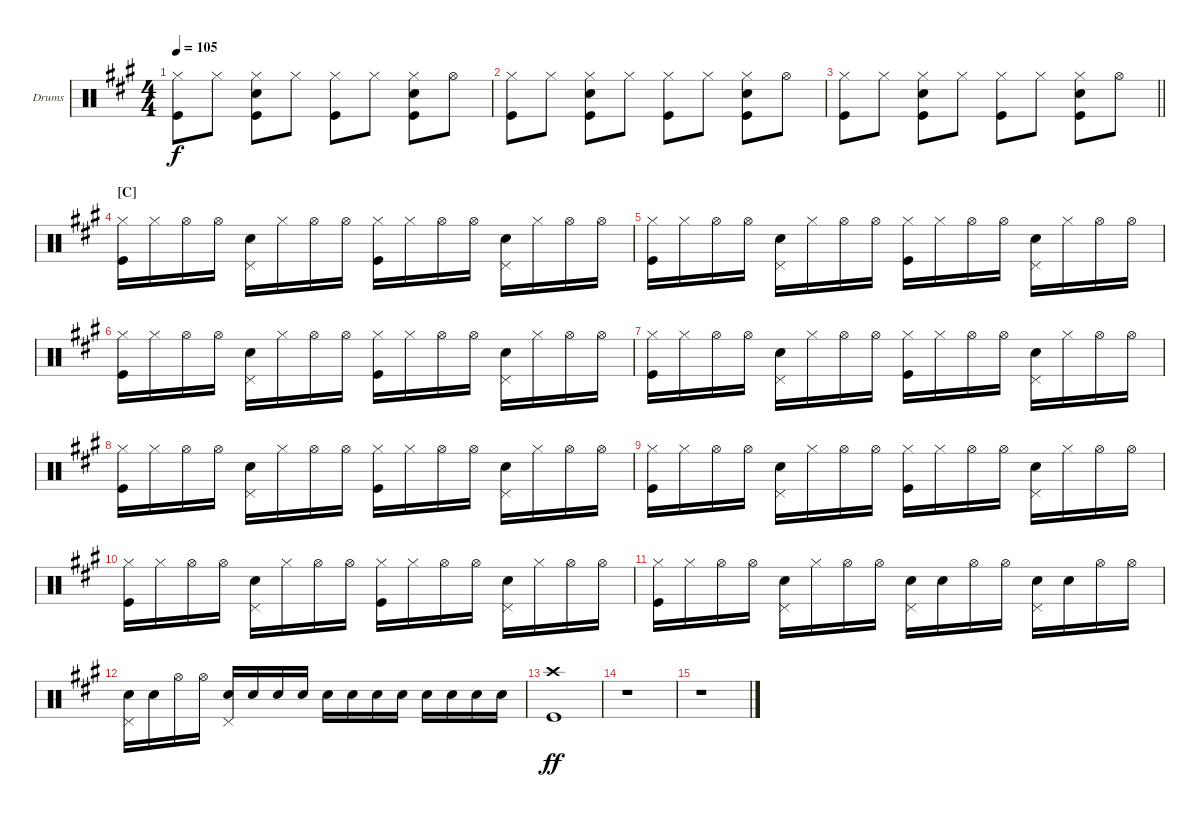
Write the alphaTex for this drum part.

\bracketExtendMode groupsimilarinstruments
\firstSystemTrackNameOrientation horizontal
\otherSystemsTrackNameOrientation horizontal
\track ("Fabrizio Moretti" "Drums") {instrument percussion}
\staff {score}
\articulation defaults
\ts (4 4)
\tempo 105
\clef neutral
\ks a
("Hi-Hat (closed)" "Kick (hit)").8{dy f} "Hi-Hat (closed)".8 ("Hi-Hat (closed)" "Snare (hit) 2" "Kick (hit)").8 "Hi-Hat (closed)".8 ("Hi-Hat (closed)" "Kick (hit)").8 "Hi-Hat (closed)".8 ("Hi-Hat (closed)" "Snare (hit) 2" "Kick (hit)").8 "Hi-Hat (open)".8 |
("Hi-Hat (closed)" "Kick (hit)").8 "Hi-Hat (closed)".8 ("Hi-Hat (closed)" "Snare (hit) 2" "Kick (hit)").8 "Hi-Hat (closed)".8 ("Hi-Hat (closed)" "Kick (hit)").8 "Hi-Hat (closed)".8 ("Hi-Hat (closed)" "Snare (hit) 2" "Kick (hit)").8 "Hi-Hat (open)".8 |
\barLineRight lightlight
("Hi-Hat (closed)" "Kick (hit)").8 "Hi-Hat (closed)".8 ("Hi-Hat (closed)" "Snare (hit) 2" "Kick (hit)").8 "Hi-Hat (closed)".8 ("Hi-Hat (closed)" "Kick (hit)").8 "Hi-Hat (closed)".8 ("Hi-Hat (closed)" "Snare (hit) 2" "Kick (hit)").8 "Hi-Hat (open)".8 |
\section ("C" "")
("Hi-Hat (closed)" "Kick (hit)").16 "Hi-Hat (closed)".16 "Hi-Hat (open)".16 "Hi-Hat (open)".16 ("Pedal Hi-Hat (hit)" "Snare (hit) 2").16 "Hi-Hat (closed)".16 "Hi-Hat (open)".16 "Hi-Hat (open)".16 ("Hi-Hat (closed)" "Kick (hit)").16 "Hi-Hat (closed)".16 "Hi-Hat (open)".16 "Hi-Hat (open)".16 ("Pedal Hi-Hat (hit)" "Snare (hit) 2").16 "Hi-Hat (closed)".16 "Hi-Hat (open)".16 "Hi-Hat (open)".16 |
("Hi-Hat (closed)" "Kick (hit)").16 "Hi-Hat (closed)".16 "Hi-Hat (open)".16 "Hi-Hat (open)".16 ("Pedal Hi-Hat (hit)" "Snare (hit) 2").16 "Hi-Hat (closed)".16 "Hi-Hat (open)".16 "Hi-Hat (open)".16 ("Hi-Hat (closed)" "Kick (hit)").16 "Hi-Hat (closed)".16 "Hi-Hat (open)".16 "Hi-Hat (open)".16 ("Pedal Hi-Hat (hit)" "Snare (hit) 2").16 "Hi-Hat (closed)".16 "Hi-Hat (open)".16 "Hi-Hat (open)".16 |
("Hi-Hat (closed)" "Kick (hit)").16 "Hi-Hat (closed)".16 "Hi-Hat (open)".16 "Hi-Hat (open)".16 ("Pedal Hi-Hat (hit)" "Snare (hit) 2").16 "Hi-Hat (closed)".16 "Hi-Hat (open)".16 "Hi-Hat (open)".16 ("Hi-Hat (closed)" "Kick (hit)").16 "Hi-Hat (closed)".16 "Hi-Hat (open)".16 "Hi-Hat (open)".16 ("Pedal Hi-Hat (hit)" "Snare (hit) 2").16 "Hi-Hat (closed)".16 "Hi-Hat (open)".16 "Hi-Hat (open)".16 |
("Hi-Hat (closed)" "Kick (hit)").16 "Hi-Hat (closed)".16 "Hi-Hat (open)".16 "Hi-Hat (open)".16 ("Pedal Hi-Hat (hit)" "Snare (hit) 2").16 "Hi-Hat (closed)".16 "Hi-Hat (open)".16 "Hi-Hat (open)".16 ("Hi-Hat (closed)" "Kick (hit)").16 "Hi-Hat (closed)".16 "Hi-Hat (open)".16 "Hi-Hat (open)".16 ("Pedal Hi-Hat (hit)" "Snare (hit) 2").16 "Hi-Hat (closed)".16 "Hi-Hat (open)".16 "Hi-Hat (open)".16 |
("Hi-Hat (closed)" "Kick (hit)").16 "Hi-Hat (closed)".16 "Hi-Hat (open)".16 "Hi-Hat (open)".16 ("Pedal Hi-Hat (hit)" "Snare (hit) 2").16 "Hi-Hat (closed)".16 "Hi-Hat (open)".16 "Hi-Hat (open)".16 ("Hi-Hat (closed)" "Kick (hit)").16 "Hi-Hat (closed)".16 "Hi-Hat (open)".16 "Hi-Hat (open)".16 ("Pedal Hi-Hat (hit)" "Snare (hit) 2").16 "Hi-Hat (closed)".16 "Hi-Hat (open)".16 "Hi-Hat (open)".16 |
("Hi-Hat (closed)" "Kick (hit)").16 "Hi-Hat (closed)".16 "Hi-Hat (open)".16 "Hi-Hat (open)".16 ("Pedal Hi-Hat (hit)" "Snare (hit) 2").16 "Hi-Hat (closed)".16 "Hi-Hat (open)".16 "Hi-Hat (open)".16 ("Hi-Hat (closed)" "Kick (hit)").16 "Hi-Hat (closed)".16 "Hi-Hat (open)".16 "Hi-Hat (open)".16 ("Pedal Hi-Hat (hit)" "Snare (hit) 2").16 "Hi-Hat (closed)".16 "Hi-Hat (open)".16 "Hi-Hat (open)".16 |
("Hi-Hat (closed)" "Kick (hit)").16 "Hi-Hat (closed)".16 "Hi-Hat (open)".16 "Hi-Hat (open)".16 ("Pedal Hi-Hat (hit)" "Snare (hit) 2").16 "Hi-Hat (closed)".16 "Hi-Hat (open)".16 "Hi-Hat (open)".16 ("Hi-Hat (closed)" "Kick (hit)").16 "Hi-Hat (closed)".16 "Hi-Hat (open)".16 "Hi-Hat (open)".16 ("Pedal Hi-Hat (hit)" "Snare (hit) 2").16 "Hi-Hat (closed)".16 "Hi-Hat (open)".16 "Hi-Hat (open)".16 |
("Hi-Hat (closed)" "Kick (hit)").16 "Hi-Hat (closed)".16 "Hi-Hat (open)".16 "Hi-Hat (open)".16 ("Pedal Hi-Hat (hit)" "Snare (hit) 2").16 "Hi-Hat (closed)".16 "Hi-Hat (open)".16 "Hi-Hat (open)".16 ("Pedal Hi-Hat (hit)" "Snare (hit) 2").16 "Snare (hit) 2".16 "Hi-Hat (open)".16 "Hi-Hat (open)".16 ("Pedal Hi-Hat (hit)" "Snare (hit) 2").16 "Snare (hit) 2".16 "Hi-Hat (open)".16 "Hi-Hat (open)".16 |
("Pedal Hi-Hat (hit)" "Snare (hit) 2").16 "Snare (hit) 2".16 "Hi-Hat (open)".16 "Hi-Hat (open)".16 ("Pedal Hi-Hat (hit)" "Snare (hit) 2").16 "Snare (hit) 2".16 "Snare (hit) 2".16 "Snare (hit) 2".16 "Snare (hit) 2".16 "Snare (hit) 2".16 "Snare (hit) 2".16 "Snare (hit) 2".16 "Snare (hit) 2".16 "Snare (hit) 2".16 "Snare (hit) 2".16 "Snare (hit) 2".16 |
("Crash high (hit)" "Kick (hit)").1{dy ff} |
r.1 |
r.1
